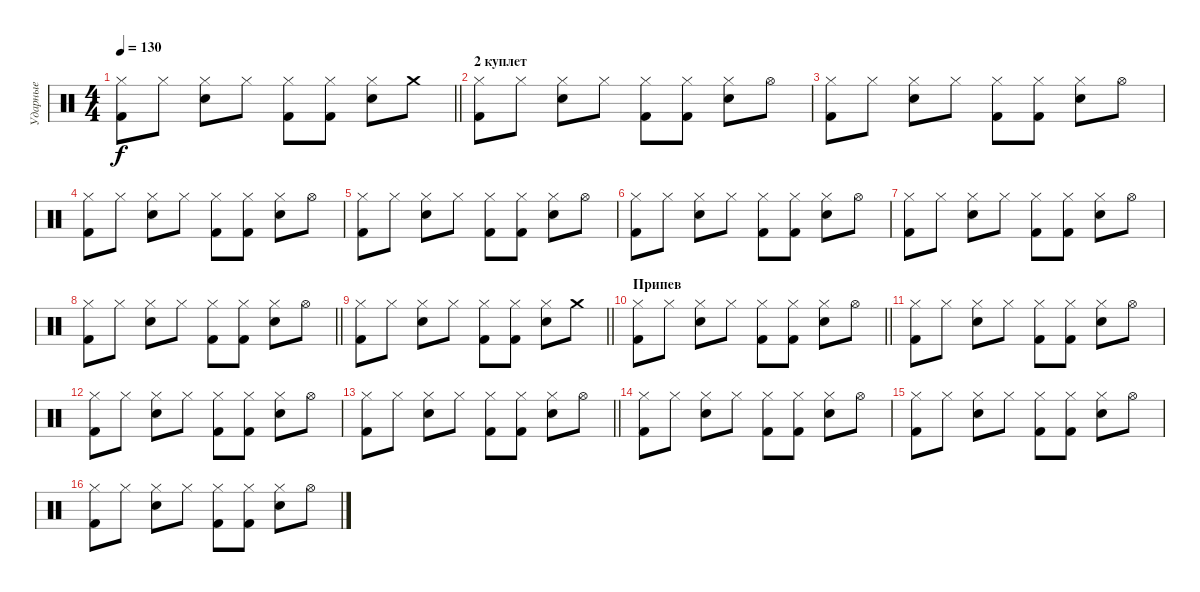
\track ("Ударные" "Ударные") {instrument percussion}
\staff {score}
\articulation defaults
\ts (4 4)
\tempo 130
\clef neutral
\barLineRight lightlight
\ks c
("Hi-Hat (closed)" "Kick (hit) 2").8{dy f} "Hi-Hat (closed)".8 ("Hi-Hat (closed)" "Electric Snare (hit)").8 "Hi-Hat (closed)".8 ("Hi-Hat (closed)" "Kick (hit) 2").8 ("Hi-Hat (closed)" "Kick (hit) 2").8 ("Hi-Hat (closed)" "Electric Snare (hit)").8 "Crash medium (hit)".8 |
\section ("" "2 куплет")
("Hi-Hat (closed)" "Kick (hit) 2").8 "Hi-Hat (closed)".8 ("Hi-Hat (closed)" "Electric Snare (hit)").8 "Hi-Hat (closed)".8 ("Hi-Hat (closed)" "Kick (hit) 2").8 ("Hi-Hat (closed)" "Kick (hit) 2").8 ("Hi-Hat (closed)" "Electric Snare (hit)").8 "Hi-Hat (open)".8 |
("Hi-Hat (closed)" "Kick (hit) 2").8 "Hi-Hat (closed)".8 ("Hi-Hat (closed)" "Electric Snare (hit)").8 "Hi-Hat (closed)".8 ("Hi-Hat (closed)" "Kick (hit) 2").8 ("Hi-Hat (closed)" "Kick (hit) 2").8 ("Hi-Hat (closed)" "Electric Snare (hit)").8 "Hi-Hat (open)".8 |
("Hi-Hat (closed)" "Kick (hit) 2").8 "Hi-Hat (closed)".8 ("Hi-Hat (closed)" "Electric Snare (hit)").8 "Hi-Hat (closed)".8 ("Hi-Hat (closed)" "Kick (hit) 2").8 ("Hi-Hat (closed)" "Kick (hit) 2").8 ("Hi-Hat (closed)" "Electric Snare (hit)").8 "Hi-Hat (open)".8 |
("Hi-Hat (closed)" "Kick (hit) 2").8 "Hi-Hat (closed)".8 ("Hi-Hat (closed)" "Electric Snare (hit)").8 "Hi-Hat (closed)".8 ("Hi-Hat (closed)" "Kick (hit) 2").8 ("Hi-Hat (closed)" "Kick (hit) 2").8 ("Hi-Hat (closed)" "Electric Snare (hit)").8 "Hi-Hat (open)".8 |
("Hi-Hat (closed)" "Kick (hit) 2").8 "Hi-Hat (closed)".8 ("Hi-Hat (closed)" "Electric Snare (hit)").8 "Hi-Hat (closed)".8 ("Hi-Hat (closed)" "Kick (hit) 2").8 ("Hi-Hat (closed)" "Kick (hit) 2").8 ("Hi-Hat (closed)" "Electric Snare (hit)").8 "Hi-Hat (open)".8 |
("Hi-Hat (closed)" "Kick (hit) 2").8 "Hi-Hat (closed)".8 ("Hi-Hat (closed)" "Electric Snare (hit)").8 "Hi-Hat (closed)".8 ("Hi-Hat (closed)" "Kick (hit) 2").8 ("Hi-Hat (closed)" "Kick (hit) 2").8 ("Hi-Hat (closed)" "Electric Snare (hit)").8 "Hi-Hat (open)".8 |
\barLineRight lightlight
("Hi-Hat (closed)" "Kick (hit) 2").8 "Hi-Hat (closed)".8 ("Hi-Hat (closed)" "Electric Snare (hit)").8 "Hi-Hat (closed)".8 ("Hi-Hat (closed)" "Kick (hit) 2").8 ("Hi-Hat (closed)" "Kick (hit) 2").8 ("Hi-Hat (closed)" "Electric Snare (hit)").8 "Hi-Hat (open)".8 |
\barLineRight lightlight
("Hi-Hat (closed)" "Kick (hit) 2").8 "Hi-Hat (closed)".8 ("Hi-Hat (closed)" "Electric Snare (hit)").8 "Hi-Hat (closed)".8 ("Hi-Hat (closed)" "Kick (hit) 2").8 ("Hi-Hat (closed)" "Kick (hit) 2").8 ("Hi-Hat (closed)" "Electric Snare (hit)").8 "Crash medium (hit)".8 |
\section ("" "Припев")
\barLineRight lightlight
("Hi-Hat (closed)" "Kick (hit) 2").8 "Hi-Hat (closed)".8 ("Hi-Hat (closed)" "Electric Snare (hit)").8 "Hi-Hat (closed)".8 ("Hi-Hat (closed)" "Kick (hit) 2").8 ("Hi-Hat (closed)" "Kick (hit) 2").8 ("Hi-Hat (closed)" "Electric Snare (hit)").8 "Hi-Hat (open)".8 |
("Hi-Hat (closed)" "Kick (hit) 2").8 "Hi-Hat (closed)".8 ("Hi-Hat (closed)" "Electric Snare (hit)").8 "Hi-Hat (closed)".8 ("Hi-Hat (closed)" "Kick (hit) 2").8 ("Hi-Hat (closed)" "Kick (hit) 2").8 ("Hi-Hat (closed)" "Electric Snare (hit)").8 "Hi-Hat (open)".8 |
("Hi-Hat (closed)" "Kick (hit) 2").8 "Hi-Hat (closed)".8 ("Hi-Hat (closed)" "Electric Snare (hit)").8 "Hi-Hat (closed)".8 ("Hi-Hat (closed)" "Kick (hit) 2").8 ("Hi-Hat (closed)" "Kick (hit) 2").8 ("Hi-Hat (closed)" "Electric Snare (hit)").8 "Hi-Hat (open)".8 |
\barLineRight lightlight
("Hi-Hat (closed)" "Kick (hit) 2").8 "Hi-Hat (closed)".8 ("Hi-Hat (closed)" "Electric Snare (hit)").8 "Hi-Hat (closed)".8 ("Hi-Hat (closed)" "Kick (hit) 2").8 ("Hi-Hat (closed)" "Kick (hit) 2").8 ("Hi-Hat (closed)" "Electric Snare (hit)").8 "Hi-Hat (open)".8 |
("Hi-Hat (closed)" "Kick (hit) 2").8 "Hi-Hat (closed)".8 ("Hi-Hat (closed)" "Electric Snare (hit)").8 "Hi-Hat (closed)".8 ("Hi-Hat (closed)" "Kick (hit) 2").8 ("Hi-Hat (closed)" "Kick (hit) 2").8 ("Hi-Hat (closed)" "Electric Snare (hit)").8 "Hi-Hat (open)".8 |
("Hi-Hat (closed)" "Kick (hit) 2").8 "Hi-Hat (closed)".8 ("Hi-Hat (closed)" "Electric Snare (hit)").8 "Hi-Hat (closed)".8 ("Hi-Hat (closed)" "Kick (hit) 2").8 ("Hi-Hat (closed)" "Kick (hit) 2").8 ("Hi-Hat (closed)" "Electric Snare (hit)").8 "Hi-Hat (open)".8 |
("Hi-Hat (closed)" "Kick (hit) 2").8 "Hi-Hat (closed)".8 ("Hi-Hat (closed)" "Electric Snare (hit)").8 "Hi-Hat (closed)".8 ("Hi-Hat (closed)" "Kick (hit) 2").8 ("Hi-Hat (closed)" "Kick (hit) 2").8 ("Hi-Hat (closed)" "Electric Snare (hit)").8 "Hi-Hat (open)".8
